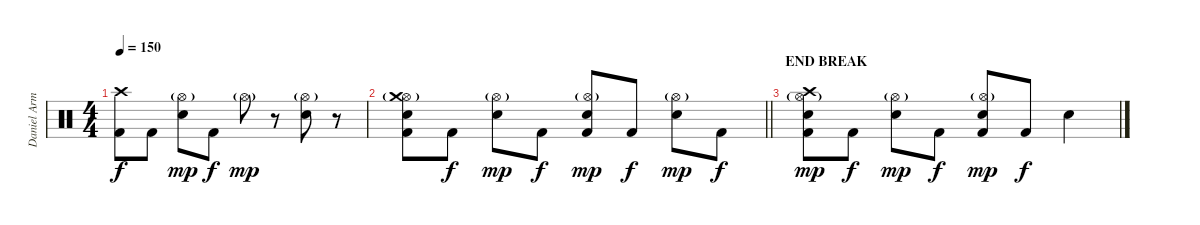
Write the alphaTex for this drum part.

\track ("Daniel Armstrong" "Daniel Arm") {instrument percussion}
\staff {score}
\articulation defaults
\ts (4 4)
\tempo 150
\clef neutral
\ks c
("Crash high (hit)" "Kick (hit) 2").8{dy f} "Kick (hit) 2".8 ("Hi-Hat (open)"{g} "Electric Snare (hit)").8{dy mp} "Kick (hit) 2".8{dy f} "Hi-Hat (open)"{g}.8{dy mp} r.8 ("Hi-Hat (open)"{g} "Electric Snare (hit)").8 r.8 |
\barLineRight lightlight
("Hi-Hat (open)"{g} "Electric Snare (hit)" "Crash medium (hit)" "Kick (hit) 2").8 "Kick (hit) 2".8{dy f} ("Hi-Hat (open)"{g} "Electric Snare (hit)").8{dy mp} "Kick (hit) 2".8{dy f} ("Hi-Hat (open)"{g} "Electric Snare (hit)" "Kick (hit) 2").8{dy mp} "Kick (hit) 2".8{dy f} ("Hi-Hat (open)"{g} "Electric Snare (hit)").8{dy mp} "Kick (hit) 2".8{dy f} |
\section ("" "END BREAK")
("Hi-Hat (open)"{g} "Electric Snare (hit)" "Crash high (hit)" "Kick (hit) 2").8{dy mp} "Kick (hit) 2".8{dy f} ("Hi-Hat (open)"{g} "Electric Snare (hit)").8{dy mp} "Kick (hit) 2".8{dy f} ("Hi-Hat (open)"{g} "Electric Snare (hit)" "Kick (hit) 2").8{dy mp} "Kick (hit) 2".8{dy f} "Electric Snare (hit)".4
